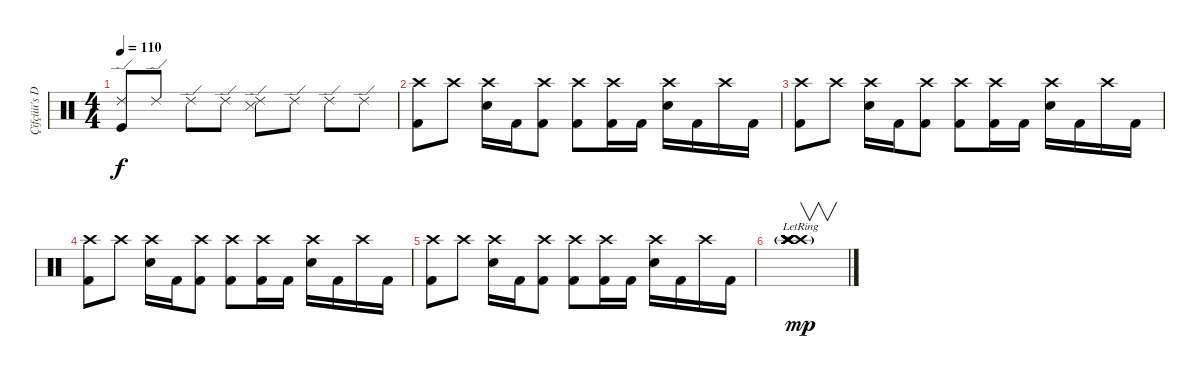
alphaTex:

\track ("Çifçüü's Drums" "Çifçüü's D") {instrument percussion}
\staff {score}
\articulation defaults
\ts (4 4)
\tempo 110
\clef neutral
\ks c
("Ride (edge) 2" "Kick (hit)").8{dy f} "Ride (edge) 2".8 "Ride (edge) 2".8 "Ride (edge) 2".8 ("Ride (edge) 2" "Snare (side stick) 3").8 "Ride (edge) 2".8 "Ride (edge) 2".8 "Ride (edge) 2".8 |
("Crash high (hit)" "Kick (hit) 2").8 "Crash high (hit)".8 ("Crash high (hit)" "Snare (hit) 2").16 "Kick (hit) 2".16 ("Crash high (hit)" "Kick (hit) 2").8 ("Crash high (hit)" "Kick (hit) 2").8 ("Crash high (hit)" "Kick (hit) 2").16 "Kick (hit) 2".16 ("Crash high (hit)" "Snare (hit) 2").16 "Kick (hit) 2".16 "Crash high (hit)".16 "Kick (hit) 2".16 |
("Crash high (hit)" "Kick (hit) 2").8 "Crash high (hit)".8 ("Crash high (hit)" "Snare (hit) 2").16 "Kick (hit) 2".16 ("Crash high (hit)" "Kick (hit) 2").8 ("Crash high (hit)" "Kick (hit) 2").8 ("Crash high (hit)" "Kick (hit) 2").16 "Kick (hit) 2".16 ("Crash high (hit)" "Snare (hit) 2").16 "Kick (hit) 2".16 "Crash high (hit)".16 "Kick (hit) 2".16 |
("Crash high (hit)" "Kick (hit) 2").8 "Crash high (hit)".8 ("Crash high (hit)" "Snare (hit) 2").16 "Kick (hit) 2".16 ("Crash high (hit)" "Kick (hit) 2").8 ("Crash high (hit)" "Kick (hit) 2").8 ("Crash high (hit)" "Kick (hit) 2").16 "Kick (hit) 2".16 ("Crash high (hit)" "Snare (hit) 2").16 "Kick (hit) 2".16 "Crash high (hit)".16 "Kick (hit) 2".16 |
("Crash high (hit)" "Kick (hit) 2").8 "Crash high (hit)".8 ("Crash high (hit)" "Snare (hit) 2").16 "Kick (hit) 2".16 ("Crash high (hit)" "Kick (hit) 2").8 ("Crash high (hit)" "Kick (hit) 2").8 ("Crash high (hit)" "Kick (hit) 2").16 "Kick (hit) 2".16 ("Crash high (hit)" "Snare (hit) 2").16 "Kick (hit) 2".16 "Crash high (hit)".16 "Kick (hit) 2".16 |
("Crash high (hit)"{g lr} "Crash high (hit)"{g lr} "Crash high (hit)"{g lr} "Crash high (hit)"{g lr} "Crash high (hit)"{g lr} "Crash high (hit)"{g lr}).1{v bd 480 dy mp volume 6 balance 16}
